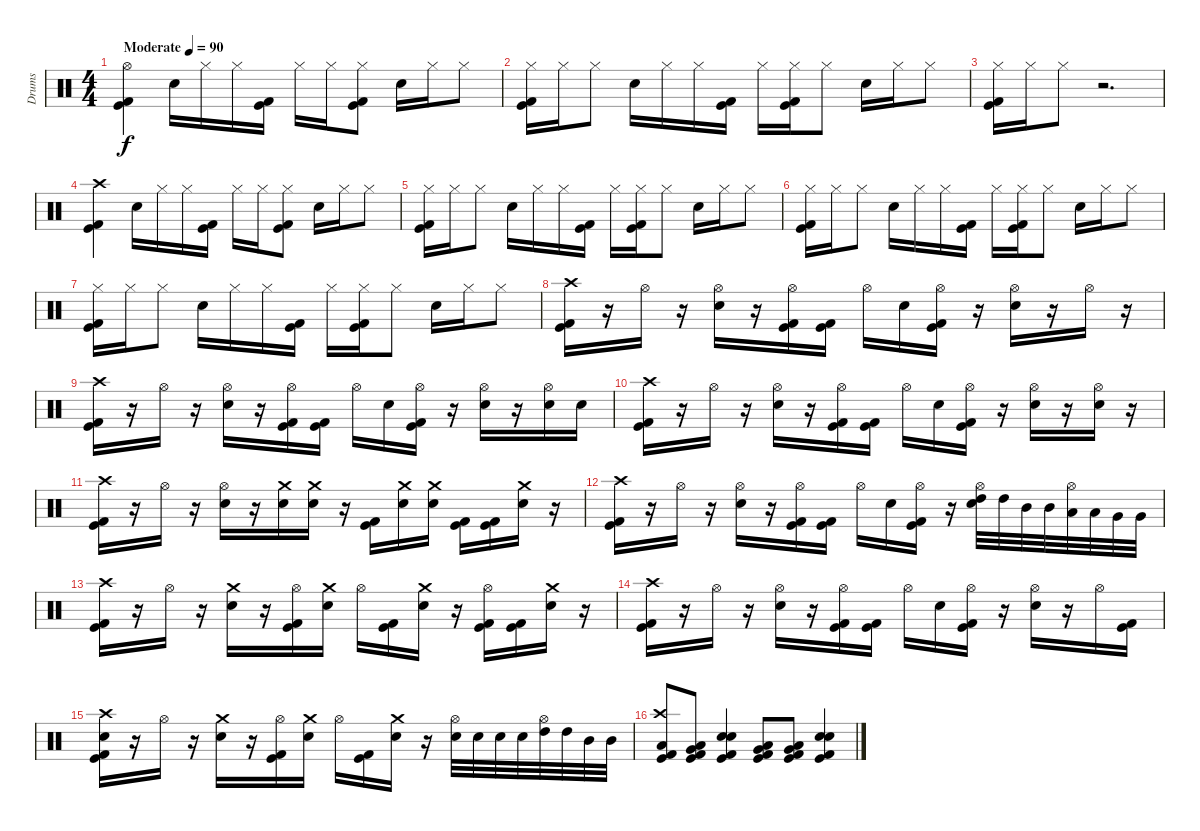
\track ("Drums" "Drums") {instrument percussion}
\staff {score}
\articulation defaults
\ts (4 4)
\tempo (90 "Moderate")
\clef neutral
\ks c
("Hi-Hat (open)" "Kick (hit)" "Kick (hit) 2").4{dy f} "Electric Snare (hit)".16 "Hi-Hat (closed)".16 "Hi-Hat (closed)".16 ("Kick (hit)" "Kick (hit) 2").16 "Hi-Hat (closed)".16 "Hi-Hat (closed)".16 ("Hi-Hat (closed)" "Kick (hit)" "Kick (hit) 2").8 "Electric Snare (hit)".16 "Hi-Hat (closed)".16 "Hi-Hat (closed)".8 |
("Hi-Hat (closed)" "Kick (hit)" "Kick (hit) 2").16 "Hi-Hat (closed)".16 "Hi-Hat (closed)".8 "Electric Snare (hit)".16 "Hi-Hat (closed)".16 "Hi-Hat (closed)".16 ("Kick (hit)" "Kick (hit) 2").16 "Hi-Hat (closed)".16 ("Hi-Hat (closed)" "Kick (hit)" "Kick (hit) 2").16 "Hi-Hat (closed)".8 "Electric Snare (hit)".16 "Hi-Hat (closed)".16 "Hi-Hat (closed)".8 |
("Hi-Hat (closed)" "Kick (hit)" "Kick (hit) 2").16 "Hi-Hat (closed)".16 "Hi-Hat (closed)".8 r.2{d} |
("Crash high (hit)" "Kick (hit)" "Kick (hit) 2").4 "Electric Snare (hit)".16 "Hi-Hat (closed)".16 "Hi-Hat (closed)".16 ("Kick (hit)" "Kick (hit) 2").16 "Hi-Hat (closed)".16 "Hi-Hat (closed)".16 ("Hi-Hat (closed)" "Kick (hit)" "Kick (hit) 2").8 "Electric Snare (hit)".16 "Hi-Hat (closed)".16 "Hi-Hat (closed)".8 |
("Hi-Hat (closed)" "Kick (hit)" "Kick (hit) 2").16 "Hi-Hat (closed)".16 "Hi-Hat (closed)".8 "Electric Snare (hit)".16 "Hi-Hat (closed)".16 "Hi-Hat (closed)".16 ("Kick (hit)" "Kick (hit) 2").16 "Hi-Hat (closed)".16 ("Hi-Hat (closed)" "Kick (hit)" "Kick (hit) 2").16 "Hi-Hat (closed)".8 "Electric Snare (hit)".16 "Hi-Hat (closed)".16 "Hi-Hat (closed)".8 |
("Hi-Hat (closed)" "Kick (hit)" "Kick (hit) 2").16 "Hi-Hat (closed)".16 "Hi-Hat (closed)".8 "Electric Snare (hit)".16 "Hi-Hat (closed)".16 "Hi-Hat (closed)".16 ("Kick (hit)" "Kick (hit) 2").16 "Hi-Hat (closed)".16 ("Hi-Hat (closed)" "Kick (hit)" "Kick (hit) 2").16 "Hi-Hat (closed)".8 "Electric Snare (hit)".16 "Hi-Hat (closed)".16 "Hi-Hat (closed)".8 |
("Hi-Hat (closed)" "Kick (hit)" "Kick (hit) 2").16 "Hi-Hat (closed)".16 "Hi-Hat (closed)".8 "Electric Snare (hit)".16 "Hi-Hat (closed)".16 "Hi-Hat (closed)".16 ("Kick (hit)" "Kick (hit) 2").16 "Hi-Hat (closed)".16 ("Hi-Hat (closed)" "Kick (hit)" "Kick (hit) 2").16 "Hi-Hat (closed)".8 "Electric Snare (hit)".16 "Hi-Hat (closed)".16 "Hi-Hat (closed)".8 |
("Crash high (hit)" "Kick (hit)" "Kick (hit) 2").16 r.16 "Hi-Hat (open)".16 r.16 ("Hi-Hat (open)" "Electric Snare (hit)").16 r.16 ("Hi-Hat (open)" "Kick (hit)" "Kick (hit) 2").16 ("Kick (hit)" "Kick (hit) 2").16 "Hi-Hat (open)".16 "Electric Snare (hit)".16 ("Hi-Hat (open)" "Kick (hit)" "Kick (hit) 2").16 r.16 ("Hi-Hat (open)" "Electric Snare (hit)").16 r.16 "Hi-Hat (open)".16 r.16 |
("Crash high (hit)" "Kick (hit)" "Kick (hit) 2").16 r.16 "Hi-Hat (open)".16 r.16 ("Hi-Hat (open)" "Electric Snare (hit)").16 r.16 ("Hi-Hat (open)" "Kick (hit)" "Kick (hit) 2").16 ("Kick (hit)" "Kick (hit) 2").16 "Hi-Hat (open)".16 "Electric Snare (hit)".16 ("Hi-Hat (open)" "Kick (hit)" "Kick (hit) 2").16 r.16 ("Hi-Hat (open)" "Electric Snare (hit)").16 r.16 ("Hi-Hat (open)" "Electric Snare (hit)").16 "Electric Snare (hit)".16 |
("Crash high (hit)" "Kick (hit)" "Kick (hit) 2").16 r.16 "Hi-Hat (open)".16 r.16 ("Hi-Hat (open)" "Electric Snare (hit)").16 r.16 ("Hi-Hat (open)" "Kick (hit)" "Kick (hit) 2").16 ("Kick (hit)" "Kick (hit) 2").16 "Hi-Hat (open)".16 "Electric Snare (hit)".16 ("Hi-Hat (open)" "Kick (hit)" "Kick (hit) 2").16 r.16 ("Hi-Hat (open)" "Electric Snare (hit)").16 r.16 ("Hi-Hat (open)" "Electric Snare (hit)").16 r.16 |
("Crash high (hit)" "Kick (hit)" "Kick (hit) 2").16 r.16 "Hi-Hat (open)".16 r.16 ("Hi-Hat (open)" "Electric Snare (hit)").16 r.16 ("Crash medium (hit)" "Electric Snare (hit)").16 ("Crash medium (hit)" "Electric Snare (hit)").16 r.16 ("Kick (hit)" "Kick (hit) 2").16 ("Crash medium (hit)" "Electric Snare (hit)").16 ("Crash medium (hit)" "Electric Snare (hit)").16 ("Kick (hit)" "Kick (hit) 2").16 ("Kick (hit)" "Kick (hit) 2").16 ("Crash medium (hit)" "Electric Snare (hit)").16 r.16 |
("Crash high (hit)" "Kick (hit)" "Kick (hit) 2").16 r.16 "Hi-Hat (open)".16 r.16 ("Hi-Hat (open)" "Electric Snare (hit)").16 r.16 ("Hi-Hat (open)" "Kick (hit)" "Kick (hit) 2").16 ("Kick (hit)" "Kick (hit) 2").16 "Hi-Hat (open)".16 "Electric Snare (hit)".16 ("Hi-Hat (open)" "Kick (hit)" "Kick (hit) 2").16 r.16 ("Hi-Hat (open)" "High Tom (hit)" "Electric Snare (hit)").32 "High Tom (hit)".32 "Mid Tom (hit)".32 "Mid Tom (hit)".32 ("Hi-Hat (open)" "Low Tom (hit)").32 "Low Tom (hit)".32 "Very Low Tom (hit)".32 "Very Low Tom (hit)".32 |
("Crash high (hit)" "Kick (hit)" "Kick (hit) 2").16 r.16 "Hi-Hat (open)".16 r.16 ("Crash medium (hit)" "Electric Snare (hit)").16 r.16 ("Hi-Hat (open)" "Kick (hit)" "Kick (hit) 2").16 ("Crash medium (hit)" "Electric Snare (hit)").16 "Hi-Hat (open)".16 ("Kick (hit)" "Kick (hit) 2").16 ("Crash medium (hit)" "Electric Snare (hit)").16 r.16 ("Hi-Hat (open)" "Kick (hit)" "Kick (hit) 2").16 ("Kick (hit)" "Kick (hit) 2").16 ("Crash medium (hit)" "Electric Snare (hit)").16 r.16 |
("Crash high (hit)" "Kick (hit)" "Kick (hit) 2").16 r.16 "Hi-Hat (open)".16 r.16 ("Hi-Hat (open)" "Electric Snare (hit)").16 r.16 ("Hi-Hat (open)" "Kick (hit)" "Kick (hit) 2").16 ("Kick (hit)" "Kick (hit) 2").16 "Hi-Hat (open)".16 "Electric Snare (hit)".16 ("Hi-Hat (open)" "Kick (hit)" "Kick (hit) 2").16 r.16 ("Hi-Hat (open)" "Electric Snare (hit)").16 r.16 "Hi-Hat (open)".16 ("Kick (hit)" "Kick (hit) 2").16 |
("Crash high (hit)" "Electric Snare (hit)" "Kick (hit)" "Kick (hit) 2").16 r.16 "Hi-Hat (open)".16 r.16 ("Crash medium (hit)" "Electric Snare (hit)").16 r.16 ("Hi-Hat (open)" "Kick (hit)" "Kick (hit) 2").16 ("Crash medium (hit)" "Electric Snare (hit)").16 "Hi-Hat (open)".16 ("Kick (hit)" "Kick (hit) 2").16 ("Crash medium (hit)" "Electric Snare (hit)").16 r.16 ("Hi-Hat (open)" "Electric Snare (hit)").32 "Electric Snare (hit)".32 "Electric Snare (hit)".32 "Electric Snare (hit)".32 ("Hi-Hat (open)" "High Tom (hit)").32 "High Tom (hit)".32 "Mid Tom (hit)".32 "Mid Tom (hit)".32 |
("Crash high (hit)" "Low Tom (hit)" "Kick (hit)" "Kick (hit) 2").8 ("Very Low Tom (hit)" "Low Tom (hit)" "Kick (hit)" "Kick (hit) 2").8 ("Electric Snare (hit)" "Electric Snare (hit)" "Kick (hit)" "Kick (hit) 2").4 ("Very Low Tom (hit)" "Low Tom (hit)" "Kick (hit)" "Kick (hit) 2").8 ("Very Low Tom (hit)" "Low Tom (hit)" "Kick (hit)" "Kick (hit) 2").8 ("Electric Snare (hit)" "Electric Snare (hit)" "Kick (hit)" "Kick (hit) 2").4
